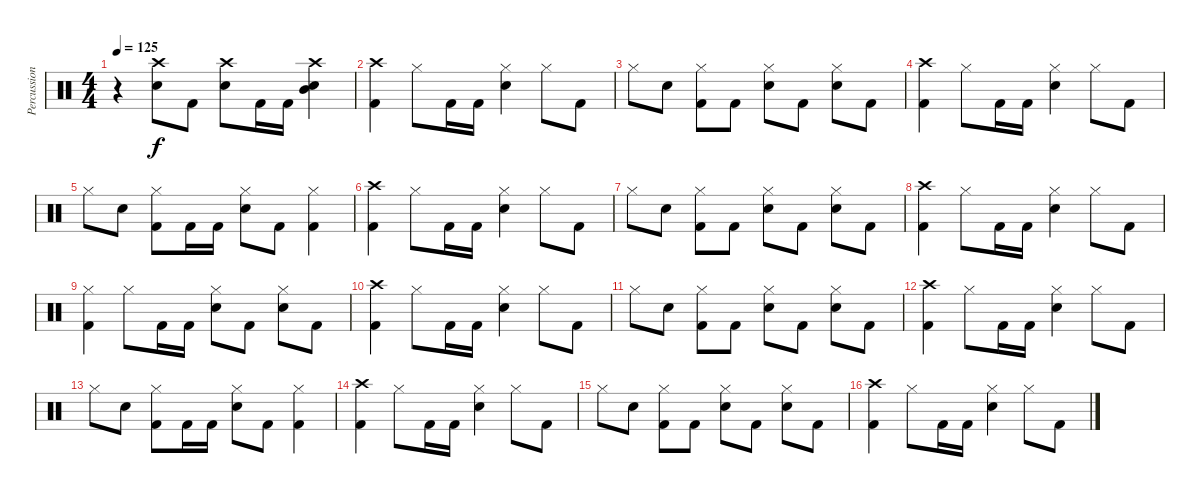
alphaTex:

\track ("Percussioni" "Percussion") {instrument percussion}
\staff {score}
\articulation defaults
\ts (4 4)
\tempo 125
\clef neutral
\ks c
r.4{dy f} ("Crash high (hit)" "Snare (hit) 2").8 "Kick (hit) 2".8 ("Crash high (hit)" "Snare (hit) 2").8 "Kick (hit) 2".16 "Kick (hit) 2".16 ("Crash high (hit)" "Mid Tom (hit)" "Snare (hit) 2").4 |
("Crash high (hit)" "Kick (hit) 2").4 "Hi-Hat (closed)".8 "Kick (hit) 2".16 "Kick (hit) 2".16 ("Hi-Hat (closed)" "Snare (hit) 2").4 "Hi-Hat (closed)".8 "Kick (hit) 2".8 |
"Hi-Hat (closed)".8 "Snare (hit) 2".8 ("Hi-Hat (closed)" "Kick (hit) 2").8 "Kick (hit) 2".8 ("Hi-Hat (closed)" "Snare (hit) 2").8 "Kick (hit) 2".8 ("Hi-Hat (closed)" "Snare (hit) 2").8 "Kick (hit) 2".8 |
("Crash high (hit)" "Kick (hit) 2").4 "Hi-Hat (closed)".8 "Kick (hit) 2".16 "Kick (hit) 2".16 ("Hi-Hat (closed)" "Snare (hit) 2").4 "Hi-Hat (closed)".8 "Kick (hit) 2".8 |
"Hi-Hat (closed)".8 "Snare (hit) 2".8 ("Hi-Hat (closed)" "Kick (hit) 2").8 "Kick (hit) 2".16 "Kick (hit) 2".16 ("Hi-Hat (closed)" "Snare (hit) 2").8 "Kick (hit) 2".8 ("Hi-Hat (closed)" "Kick (hit) 2").4 |
("Crash high (hit)" "Kick (hit) 2").4 "Hi-Hat (closed)".8 "Kick (hit) 2".16 "Kick (hit) 2".16 ("Hi-Hat (closed)" "Snare (hit) 2").4 "Hi-Hat (closed)".8 "Kick (hit) 2".8 |
"Hi-Hat (closed)".8 "Snare (hit) 2".8 ("Hi-Hat (closed)" "Kick (hit) 2").8 "Kick (hit) 2".8 ("Hi-Hat (closed)" "Snare (hit) 2").8 "Kick (hit) 2".8 ("Hi-Hat (closed)" "Snare (hit) 2").8 "Kick (hit) 2".8 |
("Crash high (hit)" "Kick (hit) 2").4 "Hi-Hat (closed)".8 "Kick (hit) 2".16 "Kick (hit) 2".16 ("Hi-Hat (closed)" "Snare (hit) 2").4 "Hi-Hat (closed)".8 "Kick (hit) 2".8 |
("Hi-Hat (closed)" "Kick (hit) 2").4 "Hi-Hat (closed)".8 "Kick (hit) 2".16 "Kick (hit) 2".16 ("Hi-Hat (closed)" "Snare (hit) 2").8 "Kick (hit) 2".8 ("Hi-Hat (closed)" "Snare (hit) 2").8 "Kick (hit) 2".8 |
("Crash high (hit)" "Kick (hit) 2").4 "Hi-Hat (closed)".8 "Kick (hit) 2".16 "Kick (hit) 2".16 ("Hi-Hat (closed)" "Snare (hit) 2").4 "Hi-Hat (closed)".8 "Kick (hit) 2".8 |
"Hi-Hat (closed)".8 "Snare (hit) 2".8 ("Hi-Hat (closed)" "Kick (hit) 2").8 "Kick (hit) 2".8 ("Hi-Hat (closed)" "Snare (hit) 2").8 "Kick (hit) 2".8 ("Hi-Hat (closed)" "Snare (hit) 2").8 "Kick (hit) 2".8 |
("Crash high (hit)" "Kick (hit) 2").4 "Hi-Hat (closed)".8 "Kick (hit) 2".16 "Kick (hit) 2".16 ("Hi-Hat (closed)" "Snare (hit) 2").4 "Hi-Hat (closed)".8 "Kick (hit) 2".8 |
"Hi-Hat (closed)".8 "Snare (hit) 2".8 ("Hi-Hat (closed)" "Kick (hit) 2").8 "Kick (hit) 2".16 "Kick (hit) 2".16 ("Hi-Hat (closed)" "Snare (hit) 2").8 "Kick (hit) 2".8 ("Hi-Hat (closed)" "Kick (hit) 2").4 |
("Crash high (hit)" "Kick (hit) 2").4 "Hi-Hat (closed)".8 "Kick (hit) 2".16 "Kick (hit) 2".16 ("Hi-Hat (closed)" "Snare (hit) 2").4 "Hi-Hat (closed)".8 "Kick (hit) 2".8 |
"Hi-Hat (closed)".8 "Snare (hit) 2".8 ("Hi-Hat (closed)" "Kick (hit) 2").8 "Kick (hit) 2".8 ("Hi-Hat (closed)" "Snare (hit) 2").8 "Kick (hit) 2".8 ("Hi-Hat (closed)" "Snare (hit) 2").8 "Kick (hit) 2".8 |
("Crash high (hit)" "Kick (hit) 2").4 "Hi-Hat (closed)".8 "Kick (hit) 2".16 "Kick (hit) 2".16 ("Hi-Hat (closed)" "Snare (hit) 2").4 "Hi-Hat (closed)".8 "Kick (hit) 2".8
